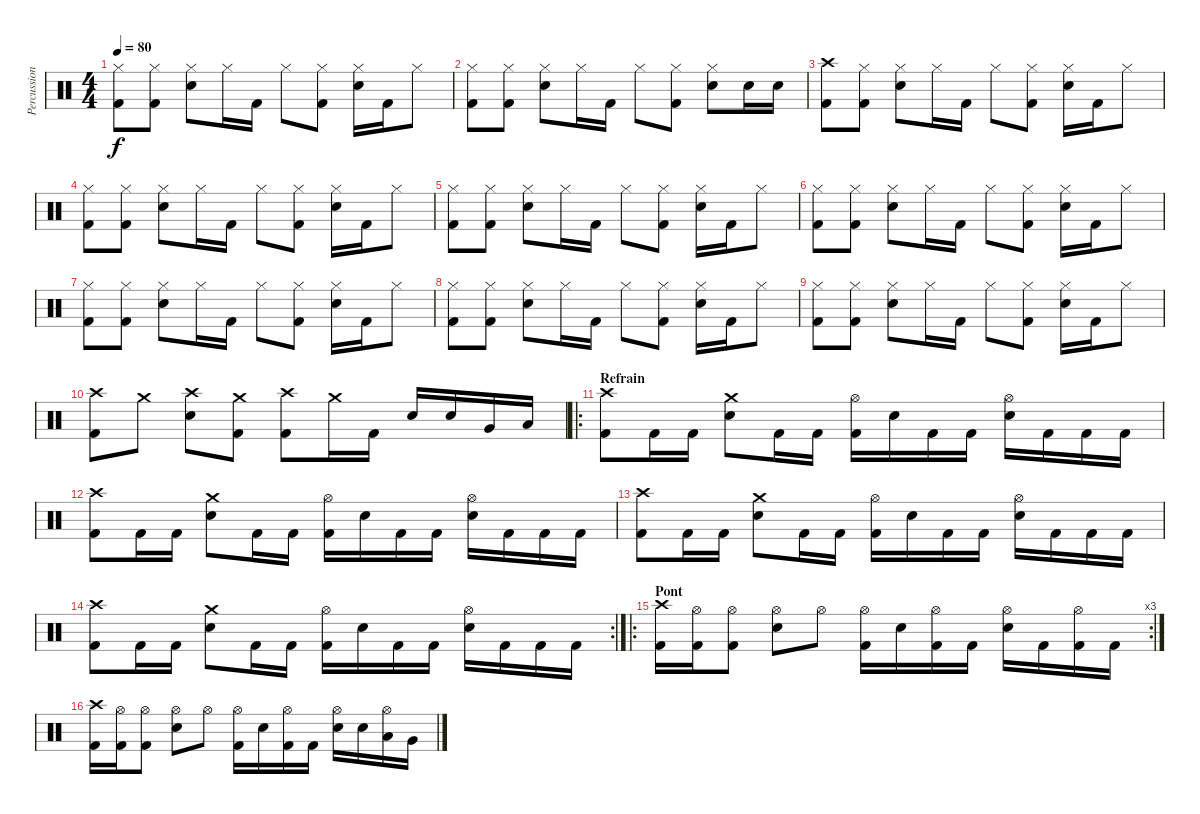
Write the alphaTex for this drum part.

\track ("Percussions" "Percussion") {instrument percussion}
\staff {score}
\articulation defaults
\ts (4 4)
\tempo 80
\clef neutral
\ks c
("Hi-Hat (closed)" "Kick (hit) 2").8{dy f} ("Hi-Hat (closed)" "Kick (hit) 2").8 ("Hi-Hat (closed)" "Electric Snare (hit)").8 "Hi-Hat (closed)".16 "Kick (hit) 2".16 "Hi-Hat (closed)".8 ("Hi-Hat (closed)" "Kick (hit) 2").8 ("Hi-Hat (closed)" "Electric Snare (hit)").16 "Kick (hit) 2".16 "Hi-Hat (closed)".8 |
("Hi-Hat (closed)" "Kick (hit) 2").8 ("Hi-Hat (closed)" "Kick (hit) 2").8 ("Hi-Hat (closed)" "Electric Snare (hit)").8 "Hi-Hat (closed)".16 "Kick (hit) 2".16 "Hi-Hat (closed)".8 ("Hi-Hat (closed)" "Kick (hit) 2").8 ("Hi-Hat (closed)" "Electric Snare (hit)").8 "Electric Snare (hit)".16 "Electric Snare (hit)".16 |
("Crash high (hit)" "Kick (hit) 2").8 ("Hi-Hat (closed)" "Kick (hit) 2").8 ("Hi-Hat (closed)" "Electric Snare (hit)").8 "Hi-Hat (closed)".16 "Kick (hit) 2".16 "Hi-Hat (closed)".8 ("Hi-Hat (closed)" "Kick (hit) 2").8 ("Hi-Hat (closed)" "Electric Snare (hit)").16 "Kick (hit) 2".16 "Hi-Hat (closed)".8 |
("Hi-Hat (closed)" "Kick (hit) 2").8 ("Hi-Hat (closed)" "Kick (hit) 2").8 ("Hi-Hat (closed)" "Electric Snare (hit)").8 "Hi-Hat (closed)".16 "Kick (hit) 2".16 "Hi-Hat (closed)".8 ("Hi-Hat (closed)" "Kick (hit) 2").8 ("Hi-Hat (closed)" "Electric Snare (hit)").16 "Kick (hit) 2".16 "Hi-Hat (closed)".8 |
("Hi-Hat (closed)" "Kick (hit) 2").8 ("Hi-Hat (closed)" "Kick (hit) 2").8 ("Hi-Hat (closed)" "Electric Snare (hit)").8 "Hi-Hat (closed)".16 "Kick (hit) 2".16 "Hi-Hat (closed)".8 ("Hi-Hat (closed)" "Kick (hit) 2").8 ("Hi-Hat (closed)" "Electric Snare (hit)").16 "Kick (hit) 2".16 "Hi-Hat (closed)".8 |
("Hi-Hat (closed)" "Kick (hit) 2").8 ("Hi-Hat (closed)" "Kick (hit) 2").8 ("Hi-Hat (closed)" "Electric Snare (hit)").8 "Hi-Hat (closed)".16 "Kick (hit) 2".16 "Hi-Hat (closed)".8 ("Hi-Hat (closed)" "Kick (hit) 2").8 ("Hi-Hat (closed)" "Electric Snare (hit)").16 "Kick (hit) 2".16 "Hi-Hat (closed)".8 |
("Hi-Hat (closed)" "Kick (hit) 2").8 ("Hi-Hat (closed)" "Kick (hit) 2").8 ("Hi-Hat (closed)" "Electric Snare (hit)").8 "Hi-Hat (closed)".16 "Kick (hit) 2".16 "Hi-Hat (closed)".8 ("Hi-Hat (closed)" "Kick (hit) 2").8 ("Hi-Hat (closed)" "Electric Snare (hit)").16 "Kick (hit) 2".16 "Hi-Hat (closed)".8 |
("Hi-Hat (closed)" "Kick (hit) 2").8 ("Hi-Hat (closed)" "Kick (hit) 2").8 ("Hi-Hat (closed)" "Electric Snare (hit)").8 "Hi-Hat (closed)".16 "Kick (hit) 2".16 "Hi-Hat (closed)".8 ("Hi-Hat (closed)" "Kick (hit) 2").8 ("Hi-Hat (closed)" "Electric Snare (hit)").16 "Kick (hit) 2".16 "Hi-Hat (closed)".8 |
("Hi-Hat (closed)" "Kick (hit) 2").8 ("Hi-Hat (closed)" "Kick (hit) 2").8 ("Hi-Hat (closed)" "Electric Snare (hit)").8 "Hi-Hat (closed)".16 "Kick (hit) 2".16 "Hi-Hat (closed)".8 ("Hi-Hat (closed)" "Kick (hit) 2").8 ("Hi-Hat (closed)" "Electric Snare (hit)").16 "Kick (hit) 2".16 "Hi-Hat (closed)".8 |
("Crash high (hit)" "Kick (hit) 2").8 "Crash medium (hit)".8 ("Crash high (hit)" "Electric Snare (hit)").8 ("Crash medium (hit)" "Kick (hit) 2").8 ("Crash high (hit)" "Kick (hit) 2").8 "Crash medium (hit)".16 "Kick (hit) 2".16 "Electric Snare (hit)".16 "Electric Snare (hit)".16 "Very Low Tom (hit)".16 "Low Floor Tom (hit)".16 |
\ro
\section ("" "Refrain")
("Crash high (hit)" "Kick (hit) 2").8 "Kick (hit) 2".16 "Kick (hit) 2".16 ("Crash medium (hit)" "Electric Snare (hit)").8 "Kick (hit) 2".16 "Kick (hit) 2".16 ("Hi-Hat (open)" "Kick (hit) 2").16 "Electric Snare (hit)".16 "Kick (hit) 2".16 "Kick (hit) 2".16 ("Hi-Hat (open)" "Electric Snare (hit)").16 "Kick (hit) 2".16 "Kick (hit) 2".16 "Kick (hit) 2".16 |
("Crash high (hit)" "Kick (hit) 2").8 "Kick (hit) 2".16 "Kick (hit) 2".16 ("Crash medium (hit)" "Electric Snare (hit)").8 "Kick (hit) 2".16 "Kick (hit) 2".16 ("Hi-Hat (open)" "Kick (hit) 2").16 "Electric Snare (hit)".16 "Kick (hit) 2".16 "Kick (hit) 2".16 ("Hi-Hat (open)" "Electric Snare (hit)").16 "Kick (hit) 2".16 "Kick (hit) 2".16 "Kick (hit) 2".16 |
("Crash high (hit)" "Kick (hit) 2").8 "Kick (hit) 2".16 "Kick (hit) 2".16 ("Crash medium (hit)" "Electric Snare (hit)").8 "Kick (hit) 2".16 "Kick (hit) 2".16 ("Hi-Hat (open)" "Kick (hit) 2").16 "Electric Snare (hit)".16 "Kick (hit) 2".16 "Kick (hit) 2".16 ("Hi-Hat (open)" "Electric Snare (hit)").16 "Kick (hit) 2".16 "Kick (hit) 2".16 "Kick (hit) 2".16 |
\rc 2
("Crash high (hit)" "Kick (hit) 2").8 "Kick (hit) 2".16 "Kick (hit) 2".16 ("Crash medium (hit)" "Electric Snare (hit)").8 "Kick (hit) 2".16 "Kick (hit) 2".16 ("Hi-Hat (open)" "Kick (hit) 2").16 "Electric Snare (hit)".16 "Kick (hit) 2".16 "Kick (hit) 2".16 ("Hi-Hat (open)" "Electric Snare (hit)").16 "Kick (hit) 2".16 "Kick (hit) 2".16 "Kick (hit) 2".16 |
\ro
\rc 3
\section ("" "Pont")
("Crash high (hit)" "Kick (hit) 2").16 ("Hi-Hat (open)" "Kick (hit) 2").16 ("Hi-Hat (open)" "Kick (hit) 2").8 ("Hi-Hat (open)" "Electric Snare (hit)").8 "Hi-Hat (open)".8 ("Hi-Hat (open)" "Kick (hit) 2").16 "Electric Snare (hit)".16 ("Hi-Hat (open)" "Kick (hit) 2").16 "Kick (hit) 2".16 ("Hi-Hat (open)" "Electric Snare (hit)").16 "Kick (hit) 2".16 ("Hi-Hat (open)" "Kick (hit) 2").16 "Kick (hit) 2".16 |
("Crash high (hit)" "Kick (hit) 2").16 ("Hi-Hat (open)" "Kick (hit) 2").16 ("Hi-Hat (open)" "Kick (hit) 2").8 ("Hi-Hat (open)" "Electric Snare (hit)").8 "Hi-Hat (open)".8 ("Hi-Hat (open)" "Kick (hit) 2").16 "Electric Snare (hit)".16 ("Hi-Hat (open)" "Kick (hit) 2").16 "Kick (hit) 2".16 ("Hi-Hat (open)" "Electric Snare (hit)").16 "Electric Snare (hit)".16 ("Hi-Hat (open)" "Low Tom (hit)").16 "Very Low Tom (hit)".16
